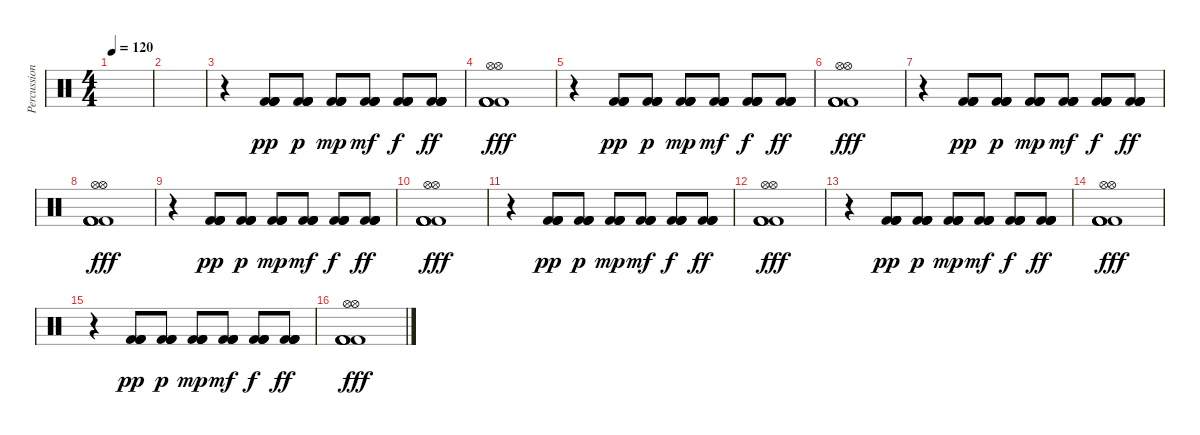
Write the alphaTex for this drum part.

\track ("Percussions" "Percussion") {instrument percussion}
\staff {score}
\articulation defaults
\ts (4 4)
\tempo 120
\clef neutral
\ks c
|
|
r.4 ("Kick (hit) 2" "Kick (hit) 2" "Kick (hit) 2" "Kick (hit) 2").8{dy pp} ("Kick (hit) 2" "Kick (hit) 2" "Kick (hit) 2" "Kick (hit) 2").8{dy p} ("Kick (hit) 2" "Kick (hit) 2" "Kick (hit) 2" "Kick (hit) 2").8{dy mp} ("Kick (hit) 2" "Kick (hit) 2" "Kick (hit) 2" "Kick (hit) 2").8{dy mf} ("Kick (hit) 2" "Kick (hit) 2" "Kick (hit) 2" "Kick (hit) 2").8{dy f} ("Kick (hit) 2" "Kick (hit) 2" "Kick (hit) 2" "Kick (hit) 2").8{dy ff} |
("Hi-Hat (open)" "Hi-Hat (open)" "Kick (hit) 2" "Kick (hit) 2" "Kick (hit) 2" "Kick (hit) 2").1{dy fff} |
r.4 ("Kick (hit) 2" "Kick (hit) 2" "Kick (hit) 2" "Kick (hit) 2").8{dy pp} ("Kick (hit) 2" "Kick (hit) 2" "Kick (hit) 2" "Kick (hit) 2").8{dy p} ("Kick (hit) 2" "Kick (hit) 2" "Kick (hit) 2" "Kick (hit) 2").8{dy mp} ("Kick (hit) 2" "Kick (hit) 2" "Kick (hit) 2" "Kick (hit) 2").8{dy mf} ("Kick (hit) 2" "Kick (hit) 2" "Kick (hit) 2" "Kick (hit) 2").8{dy f} ("Kick (hit) 2" "Kick (hit) 2" "Kick (hit) 2" "Kick (hit) 2").8{dy ff} |
("Hi-Hat (open)" "Hi-Hat (open)" "Kick (hit) 2" "Kick (hit) 2" "Kick (hit) 2" "Kick (hit) 2").1{dy fff} |
r.4 ("Kick (hit) 2" "Kick (hit) 2" "Kick (hit) 2" "Kick (hit) 2").8{dy pp} ("Kick (hit) 2" "Kick (hit) 2" "Kick (hit) 2" "Kick (hit) 2").8{dy p} ("Kick (hit) 2" "Kick (hit) 2" "Kick (hit) 2" "Kick (hit) 2").8{dy mp} ("Kick (hit) 2" "Kick (hit) 2" "Kick (hit) 2" "Kick (hit) 2").8{dy mf} ("Kick (hit) 2" "Kick (hit) 2" "Kick (hit) 2" "Kick (hit) 2").8{dy f} ("Kick (hit) 2" "Kick (hit) 2" "Kick (hit) 2" "Kick (hit) 2").8{dy ff} |
("Hi-Hat (open)" "Hi-Hat (open)" "Kick (hit) 2" "Kick (hit) 2" "Kick (hit) 2" "Kick (hit) 2").1{dy fff} |
r.4 ("Kick (hit) 2" "Kick (hit) 2" "Kick (hit) 2" "Kick (hit) 2").8{dy pp} ("Kick (hit) 2" "Kick (hit) 2" "Kick (hit) 2" "Kick (hit) 2").8{dy p} ("Kick (hit) 2" "Kick (hit) 2" "Kick (hit) 2" "Kick (hit) 2").8{dy mp} ("Kick (hit) 2" "Kick (hit) 2" "Kick (hit) 2" "Kick (hit) 2").8{dy mf} ("Kick (hit) 2" "Kick (hit) 2" "Kick (hit) 2" "Kick (hit) 2").8{dy f} ("Kick (hit) 2" "Kick (hit) 2" "Kick (hit) 2" "Kick (hit) 2").8{dy ff} |
("Hi-Hat (open)" "Hi-Hat (open)" "Kick (hit) 2" "Kick (hit) 2" "Kick (hit) 2" "Kick (hit) 2").1{dy fff} |
r.4 ("Kick (hit) 2" "Kick (hit) 2" "Kick (hit) 2" "Kick (hit) 2").8{dy pp} ("Kick (hit) 2" "Kick (hit) 2" "Kick (hit) 2" "Kick (hit) 2").8{dy p} ("Kick (hit) 2" "Kick (hit) 2" "Kick (hit) 2" "Kick (hit) 2").8{dy mp} ("Kick (hit) 2" "Kick (hit) 2" "Kick (hit) 2" "Kick (hit) 2").8{dy mf} ("Kick (hit) 2" "Kick (hit) 2" "Kick (hit) 2" "Kick (hit) 2").8{dy f} ("Kick (hit) 2" "Kick (hit) 2" "Kick (hit) 2" "Kick (hit) 2").8{dy ff} |
("Hi-Hat (open)" "Hi-Hat (open)" "Kick (hit) 2" "Kick (hit) 2" "Kick (hit) 2" "Kick (hit) 2").1{dy fff} |
r.4 ("Kick (hit) 2" "Kick (hit) 2" "Kick (hit) 2" "Kick (hit) 2").8{dy pp} ("Kick (hit) 2" "Kick (hit) 2" "Kick (hit) 2" "Kick (hit) 2").8{dy p} ("Kick (hit) 2" "Kick (hit) 2" "Kick (hit) 2" "Kick (hit) 2").8{dy mp} ("Kick (hit) 2" "Kick (hit) 2" "Kick (hit) 2" "Kick (hit) 2").8{dy mf} ("Kick (hit) 2" "Kick (hit) 2" "Kick (hit) 2" "Kick (hit) 2").8{dy f} ("Kick (hit) 2" "Kick (hit) 2" "Kick (hit) 2" "Kick (hit) 2").8{dy ff} |
("Hi-Hat (open)" "Hi-Hat (open)" "Kick (hit) 2" "Kick (hit) 2" "Kick (hit) 2" "Kick (hit) 2").1{dy fff} |
r.4 ("Kick (hit) 2" "Kick (hit) 2" "Kick (hit) 2" "Kick (hit) 2").8{dy pp} ("Kick (hit) 2" "Kick (hit) 2" "Kick (hit) 2" "Kick (hit) 2").8{dy p} ("Kick (hit) 2" "Kick (hit) 2" "Kick (hit) 2" "Kick (hit) 2").8{dy mp} ("Kick (hit) 2" "Kick (hit) 2" "Kick (hit) 2" "Kick (hit) 2").8{dy mf} ("Kick (hit) 2" "Kick (hit) 2" "Kick (hit) 2" "Kick (hit) 2").8{dy f} ("Kick (hit) 2" "Kick (hit) 2" "Kick (hit) 2" "Kick (hit) 2").8{dy ff} |
("Hi-Hat (open)" "Hi-Hat (open)" "Kick (hit) 2" "Kick (hit) 2" "Kick (hit) 2" "Kick (hit) 2").1{dy fff}
